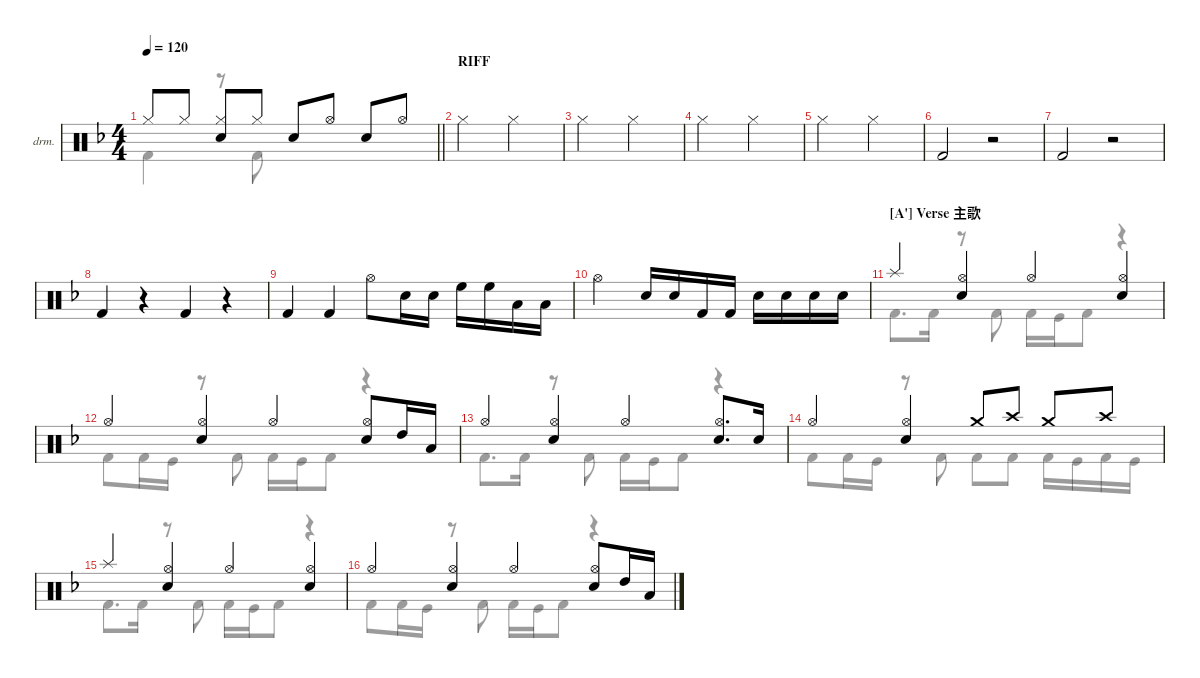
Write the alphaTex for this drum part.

\defaultSystemsLayout 4
\hideDynamics
\bracketExtendMode nobrackets
\firstSystemTrackNameOrientation horizontal
\track ("Drumkit" "drm.") {defaultSystemsLayout 4 instrument percussion}
\staff {score}
\articulation defaults
\voice
\ts (4 4)
\tempo 120
\clef neutral
\barLineRight lightlight
\ks dminor "Hi-Hat (closed)"{acc forcenatural}.8{dy mf beam Up} "Hi-Hat (closed)"{acc forcenatural}.8{beam Up}
("Hi-Hat (closed)"{acc forcenatural} "Snare (hit) 2"{acc forcenatural}).8{beam Up} "Hi-Hat (closed)"{acc forcenatural}.8{beam Up} "Snare (hit) 2"{acc forcenatural}.8{beam Up} "Hi-Hat (open)"{acc forcenatural}.8{beam Up} "Snare (hit) 2"{acc forcenatural}.8{beam Up} "Hi-Hat (open)"{acc forcenatural}.8{beam Up} |
\section ("" "RIFF")
"Hi-Hat (closed)"{acc forcenatural}.2{beam Down} "Hi-Hat (closed)"{acc forcenatural}.2{beam Down} |
"Hi-Hat (closed)"{acc forcenatural}.2{beam Down} "Hi-Hat (closed)"{acc forcenatural}.2{beam Down} |
"Hi-Hat (closed)"{acc forcenatural}.2{beam Down} "Hi-Hat (closed)"{acc forcenatural}.2{beam Down} |
"Hi-Hat (closed)"{acc forcenatural}.2{beam Down} "Hi-Hat (closed)"{acc forcenatural}.2{beam Down} |
"Kick (hit) 2"{acc forcenatural}.2{beam Up} r.2{beam Down} |
"Kick (hit) 2"{acc forcenatural}.2{beam Up} r.2{beam Down} |
"Kick (hit) 2"{acc forcenatural}.4{beam Up} r.4{beam Down} "Kick (hit) 2"{acc forcenatural}.4{beam Up} r.4{beam Down} |
"Kick (hit) 2"{acc forcenatural}.4{beam Up} "Kick (hit) 2"{acc forcenatural}.4{beam Up} "Hi-Hat (open)"{acc forcenatural}.8{beam Down} "Snare (hit) 2"{acc forcenatural}.16{beam Down} "Snare (hit) 2"{acc forcenatural}.16{beam Down} "High Floor Tom (hit)"{acc forcenatural}.16{beam Down} "High Floor Tom (hit)"{acc forcenatural}.16{beam Down} "Low Tom (hit)"{acc forcenatural}.16{beam Down} "Low Tom (hit)"{acc forcenatural}.16{beam Down} |
"Hi-Hat (open)"{acc forcenatural}.2{beam Down} "Snare (hit) 2"{acc forcenatural}.16{beam Up} "Snare (hit) 2"{acc forcenatural}.16{beam Up} "Kick (hit) 2"{acc forcenatural}.16{beam Up} "Kick (hit) 2"{acc forcenatural}.16{beam Up} "Snare (hit) 2"{acc forcenatural}.16{beam Down} "Snare (hit) 2"{acc forcenatural}.16{beam Down} "Snare (hit) 2"{acc forcenatural}.16{beam Down} "Snare (hit) 2"{acc forcenatural}.16{beam Down} |
\section ("A'" "Verse 主歌")
"Splash (hit)"{acc forcenatural}.4{beam Up} ("Hi-Hat (open)"{acc forcenatural} "Snare (hit) 2"{acc forcenatural}).4{beam Up} "Hi-Hat (open)"{acc forcenatural}.4{beam Up} ("Hi-Hat (open)"{acc forcenatural} "Snare (hit) 2"{acc forcenatural}).4{beam Up} |
"Hi-Hat (open)"{acc forcenatural}.4{beam Up} ("Hi-Hat (open)"{acc forcenatural} "Snare (hit) 2"{acc forcenatural}).4{beam Up} "Hi-Hat (open)"{acc forcenatural}.4{beam Up} ("Hi-Hat (open)"{acc forcenatural} "Snare (hit) 2"{acc forcenatural}).8{beam Up} "High Tom (hit)"{acc forcenatural}.16{beam Up} "Low Tom (hit)"{acc forcenatural}.16{beam Up} |
"Hi-Hat (open)"{acc forcenatural}.4{beam Up} ("Hi-Hat (open)"{acc forcenatural} "Snare (hit) 2"{acc forcenatural}).4{beam Up} "Hi-Hat (open)"{acc forcenatural}.4{beam Up} ("Hi-Hat (open)"{acc forcenatural} "Snare (hit) 2"{acc forcenatural}).8{d beam Up} "Snare (hit) 2"{acc forcenatural}.16{beam Up} |
"Hi-Hat (open)"{acc forcenatural}.4{beam Up} ("Hi-Hat (open)"{acc forcenatural} "Snare (hit) 2"{acc forcenatural}).4{beam Up} "Crash medium (hit)"{acc forcenatural}.8{beam Up} "Crash high (hit)"{acc forcenatural}.8{beam Up} "Crash medium (hit)"{acc forcenatural}.8{beam Up} "Crash high (hit)"{acc forcenatural}.8{beam Up} |
"Splash (hit)"{acc forcenatural}.4{beam Up} ("Hi-Hat (open)"{acc forcenatural} "Snare (hit) 2"{acc forcenatural}).4{beam Up} "Hi-Hat (open)"{acc forcenatural}.4{beam Up} ("Hi-Hat (open)"{acc forcenatural} "Snare (hit) 2"{acc forcenatural}).4{beam Up} |
"Hi-Hat (open)"{acc forcenatural}.4{beam Up} ("Hi-Hat (open)"{acc forcenatural} "Snare (hit) 2"{acc forcenatural}).4{beam Up} "Hi-Hat (open)"{acc forcenatural}.4{beam Up} ("Hi-Hat (open)"{acc forcenatural} "Snare (hit) 2"{acc forcenatural}).8{beam Up} "High Tom (hit)"{acc forcenatural}.16{beam Up} "Low Tom (hit)"{acc forcenatural}.16{beam Up}
\voice
\clef neutral
\ottava regular
\simile none
\barLineRight lightlight
\ks dminor "Kick (hit) 2"{acc forcenatural}.4{dy mf beam Down}
r.8{beam Down} "Kick (hit) 2"{acc forcenatural}.8{beam Down} |
|
|
|
|
|
|
|
|
|
"Kick (hit) 2"{acc forcenatural}.8{d beam Down} "Kick (hit) 2"{acc forcenatural}.16{beam Down} r.8{beam Down} "Kick (hit) 2"{acc forcenatural}.8{beam Down} "Kick (hit) 2"{acc forcenatural}.16{beam Down} "Kick (hit)"{acc forcenatural}.16{beam Down} "Kick (hit) 2"{acc forcenatural}.8{beam Down} r.4{beam Down} |
"Kick (hit) 2"{acc forcenatural}.8{beam Down} "Kick (hit) 2"{acc forcenatural}.16{beam Down} "Kick (hit)"{acc forcenatural}.16{beam Down} r.8{beam Down} "Kick (hit) 2"{acc forcenatural}.8{beam Down} "Kick (hit) 2"{acc forcenatural}.16{beam Down} "Kick (hit)"{acc forcenatural}.16{beam Down} "Kick (hit) 2"{acc forcenatural}.8{beam Down} r.4{beam Down} |
"Kick (hit) 2"{acc forcenatural}.8{d beam Down} "Kick (hit) 2"{acc forcenatural}.16{beam Down} r.8{beam Down} "Kick (hit) 2"{acc forcenatural}.8{beam Down} "Kick (hit) 2"{acc forcenatural}.16{beam Down} "Kick (hit)"{acc forcenatural}.16{beam Down} "Kick (hit) 2"{acc forcenatural}.8{beam Down} r.4{beam Down} |
"Kick (hit) 2"{acc forcenatural}.8{beam Down} "Kick (hit) 2"{acc forcenatural}.16{beam Down} "Kick (hit)"{acc forcenatural}.16{beam Down} r.8{beam Down} "Kick (hit) 2"{acc forcenatural}.8{beam Down} "Kick (hit) 2"{acc forcenatural}.8{beam Down} "Kick (hit) 2"{acc forcenatural}.8{beam Down} "Kick (hit) 2"{acc forcenatural}.16{beam Down} "Kick (hit)"{acc forcenatural}.16{beam Down} "Kick (hit) 2"{acc forcenatural}.16{beam Down} "Kick (hit)"{acc forcenatural}.16{beam Down} |
"Kick (hit) 2"{acc forcenatural}.8{d beam Down} "Kick (hit) 2"{acc forcenatural}.16{beam Down} r.8{beam Down} "Kick (hit) 2"{acc forcenatural}.8{beam Down} "Kick (hit) 2"{acc forcenatural}.16{beam Down} "Kick (hit)"{acc forcenatural}.16{beam Down} "Kick (hit) 2"{acc forcenatural}.8{beam Down} r.4{beam Down} |
"Kick (hit) 2"{acc forcenatural}.8{beam Down} "Kick (hit) 2"{acc forcenatural}.16{beam Down} "Kick (hit)"{acc forcenatural}.16{beam Down} r.8{beam Down} "Kick (hit) 2"{acc forcenatural}.8{beam Down} "Kick (hit) 2"{acc forcenatural}.16{beam Down} "Kick (hit)"{acc forcenatural}.16{beam Down} "Kick (hit) 2"{acc forcenatural}.8{beam Down} r.4{beam Down}
